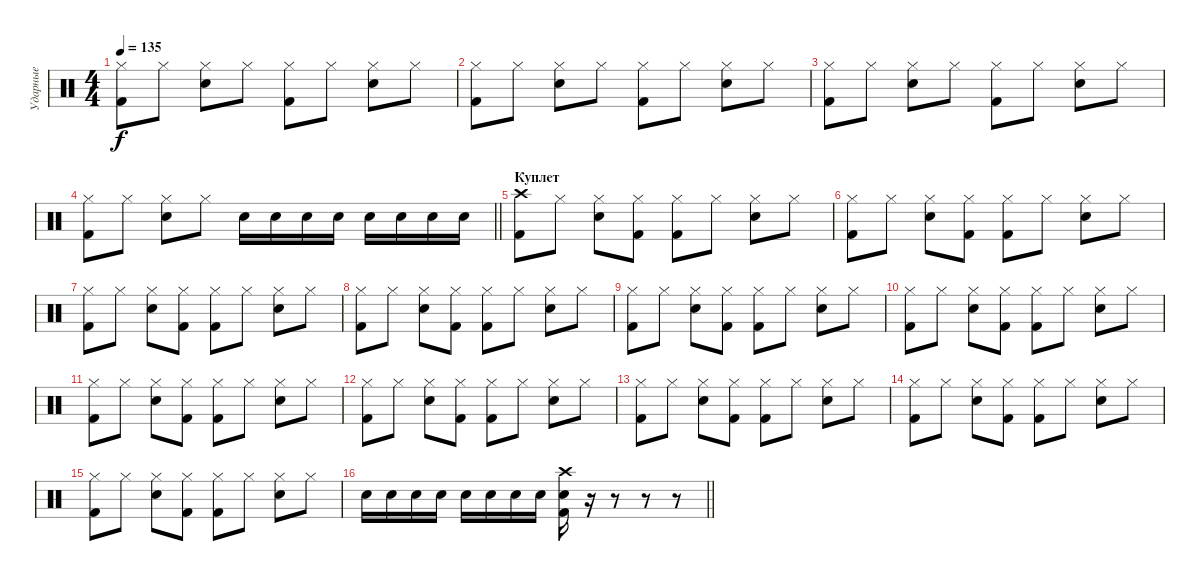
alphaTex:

\track ("Ударные" "Ударные") {instrument percussion}
\staff {score}
\articulation defaults
\ts (4 4)
\tempo 135
\clef neutral
\ks c
("Hi-Hat (closed)" "Kick (hit) 2").8{dy f} "Hi-Hat (closed)".8 ("Hi-Hat (closed)" "Snare (hit) 2").8 "Hi-Hat (closed)".8 ("Hi-Hat (closed)" "Kick (hit) 2").8 "Hi-Hat (closed)".8 ("Hi-Hat (closed)" "Snare (hit) 2").8 "Hi-Hat (closed)".8 |
("Hi-Hat (closed)" "Kick (hit) 2").8 "Hi-Hat (closed)".8 ("Hi-Hat (closed)" "Snare (hit) 2").8 "Hi-Hat (closed)".8 ("Hi-Hat (closed)" "Kick (hit) 2").8 "Hi-Hat (closed)".8 ("Hi-Hat (closed)" "Snare (hit) 2").8 "Hi-Hat (closed)".8 |
("Hi-Hat (closed)" "Kick (hit) 2").8 "Hi-Hat (closed)".8 ("Hi-Hat (closed)" "Snare (hit) 2").8 "Hi-Hat (closed)".8 ("Hi-Hat (closed)" "Kick (hit) 2").8 "Hi-Hat (closed)".8 ("Hi-Hat (closed)" "Snare (hit) 2").8 "Hi-Hat (closed)".8 |
\barLineRight lightlight
("Hi-Hat (closed)" "Kick (hit) 2").8 "Hi-Hat (closed)".8 ("Hi-Hat (closed)" "Snare (hit) 2").8 "Hi-Hat (closed)".8 "Snare (hit) 2".16 "Snare (hit) 2".16 "Snare (hit) 2".16 "Snare (hit) 2".16 "Snare (hit) 2".16 "Snare (hit) 2".16 "Snare (hit) 2".16 "Snare (hit) 2".16 |
\section ("" "Куплет")
("Crash high (hit)" "Kick (hit) 2").8 "Hi-Hat (closed)".8 ("Hi-Hat (closed)" "Snare (hit) 2").8 ("Hi-Hat (closed)" "Kick (hit) 2").8 ("Hi-Hat (closed)" "Kick (hit) 2").8 "Hi-Hat (closed)".8 ("Hi-Hat (closed)" "Snare (hit) 2").8 "Hi-Hat (closed)".8 |
("Hi-Hat (closed)" "Kick (hit) 2").8 "Hi-Hat (closed)".8 ("Hi-Hat (closed)" "Snare (hit) 2").8 ("Hi-Hat (closed)" "Kick (hit) 2").8 ("Hi-Hat (closed)" "Kick (hit) 2").8 "Hi-Hat (closed)".8 ("Hi-Hat (closed)" "Snare (hit) 2").8 "Hi-Hat (closed)".8 |
("Hi-Hat (closed)" "Kick (hit) 2").8 "Hi-Hat (closed)".8 ("Hi-Hat (closed)" "Snare (hit) 2").8 ("Hi-Hat (closed)" "Kick (hit) 2").8 ("Hi-Hat (closed)" "Kick (hit) 2").8 "Hi-Hat (closed)".8 ("Hi-Hat (closed)" "Snare (hit) 2").8 "Hi-Hat (closed)".8 |
("Hi-Hat (closed)" "Kick (hit) 2").8 "Hi-Hat (closed)".8 ("Hi-Hat (closed)" "Snare (hit) 2").8 ("Hi-Hat (closed)" "Kick (hit) 2").8 ("Hi-Hat (closed)" "Kick (hit) 2").8 "Hi-Hat (closed)".8 ("Hi-Hat (closed)" "Snare (hit) 2").8 "Hi-Hat (closed)".8 |
("Hi-Hat (closed)" "Kick (hit) 2").8 "Hi-Hat (closed)".8 ("Hi-Hat (closed)" "Snare (hit) 2").8 ("Hi-Hat (closed)" "Kick (hit) 2").8 ("Hi-Hat (closed)" "Kick (hit) 2").8 "Hi-Hat (closed)".8 ("Hi-Hat (closed)" "Snare (hit) 2").8 "Hi-Hat (closed)".8 |
("Hi-Hat (closed)" "Kick (hit) 2").8 "Hi-Hat (closed)".8 ("Hi-Hat (closed)" "Snare (hit) 2").8 ("Hi-Hat (closed)" "Kick (hit) 2").8 ("Hi-Hat (closed)" "Kick (hit) 2").8 "Hi-Hat (closed)".8 ("Hi-Hat (closed)" "Snare (hit) 2").8 "Hi-Hat (closed)".8 |
("Hi-Hat (closed)" "Kick (hit) 2").8 "Hi-Hat (closed)".8 ("Hi-Hat (closed)" "Snare (hit) 2").8 ("Hi-Hat (closed)" "Kick (hit) 2").8 ("Hi-Hat (closed)" "Kick (hit) 2").8 "Hi-Hat (closed)".8 ("Hi-Hat (closed)" "Snare (hit) 2").8 "Hi-Hat (closed)".8 |
("Hi-Hat (closed)" "Kick (hit) 2").8 "Hi-Hat (closed)".8 ("Hi-Hat (closed)" "Snare (hit) 2").8 ("Hi-Hat (closed)" "Kick (hit) 2").8 ("Hi-Hat (closed)" "Kick (hit) 2").8 "Hi-Hat (closed)".8 ("Hi-Hat (closed)" "Snare (hit) 2").8 "Hi-Hat (closed)".8 |
("Hi-Hat (closed)" "Kick (hit) 2").8 "Hi-Hat (closed)".8 ("Hi-Hat (closed)" "Snare (hit) 2").8 ("Hi-Hat (closed)" "Kick (hit) 2").8 ("Hi-Hat (closed)" "Kick (hit) 2").8 "Hi-Hat (closed)".8 ("Hi-Hat (closed)" "Snare (hit) 2").8 "Hi-Hat (closed)".8 |
("Hi-Hat (closed)" "Kick (hit) 2").8 "Hi-Hat (closed)".8 ("Hi-Hat (closed)" "Snare (hit) 2").8 ("Hi-Hat (closed)" "Kick (hit) 2").8 ("Hi-Hat (closed)" "Kick (hit) 2").8 "Hi-Hat (closed)".8 ("Hi-Hat (closed)" "Snare (hit) 2").8 "Hi-Hat (closed)".8 |
("Hi-Hat (closed)" "Kick (hit) 2").8 "Hi-Hat (closed)".8 ("Hi-Hat (closed)" "Snare (hit) 2").8 ("Hi-Hat (closed)" "Kick (hit) 2").8 ("Hi-Hat (closed)" "Kick (hit) 2").8 "Hi-Hat (closed)".8 ("Hi-Hat (closed)" "Snare (hit) 2").8 "Hi-Hat (closed)".8 |
\barLineRight lightlight "Snare (hit) 2".16 "Snare (hit) 2".16 "Snare (hit) 2".16 "Snare (hit) 2".16 "Snare (hit) 2".16 "Snare (hit) 2".16 "Snare (hit) 2".16 "Snare (hit) 2".16
("Snare (hit) 2" "Crash high (hit)" "Kick (hit) 2").16 r.16 r.8 r.8 r.8
